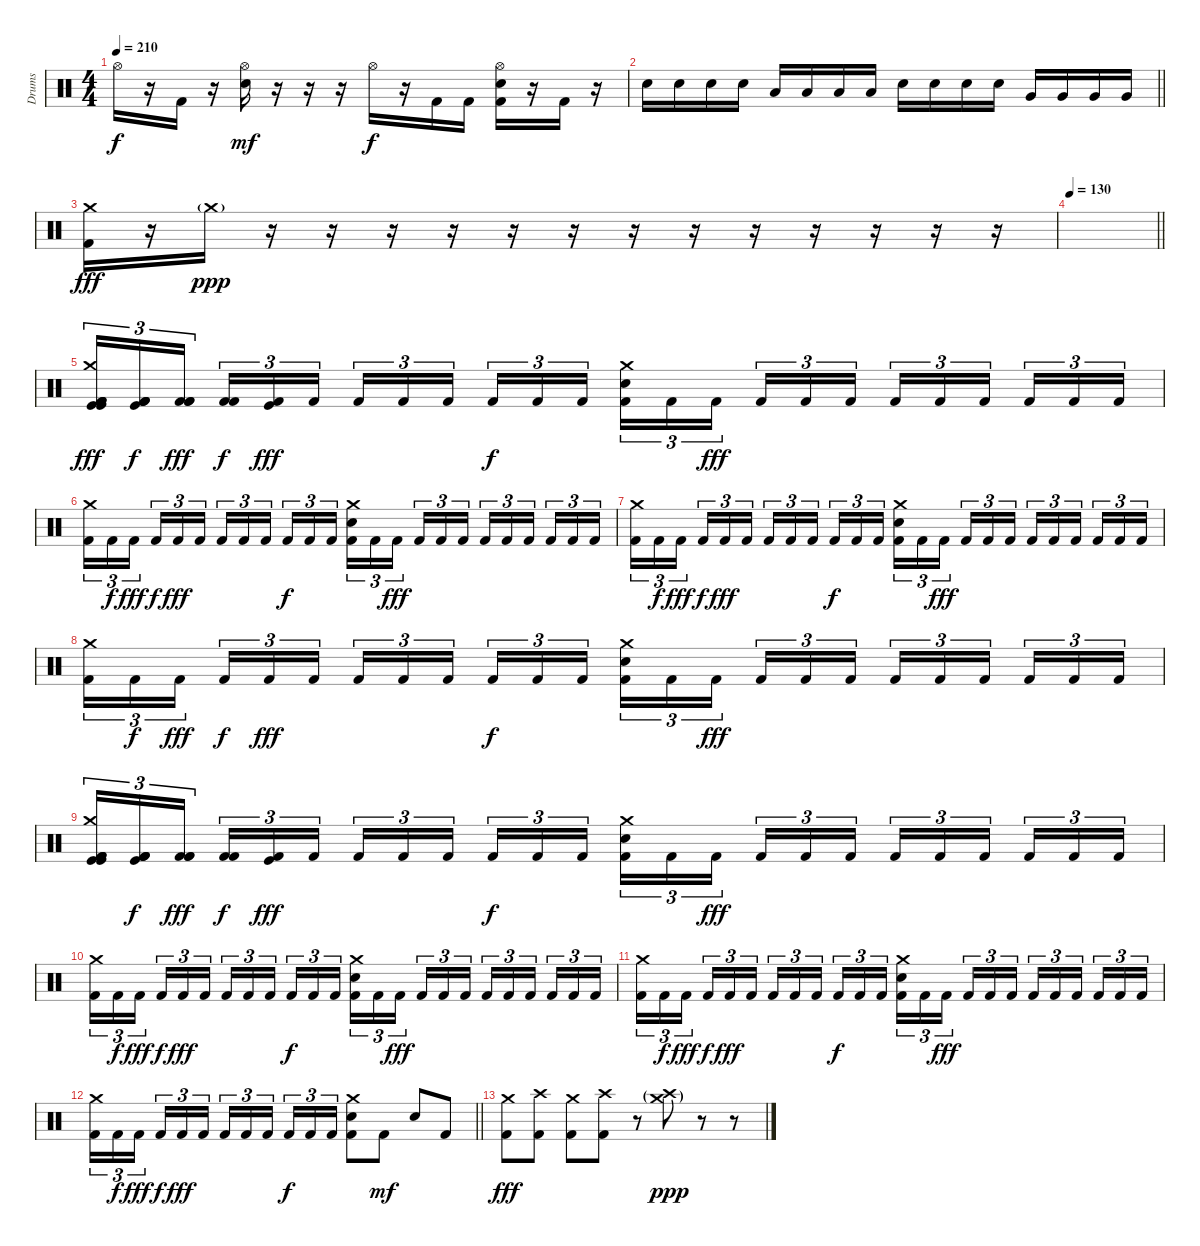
\track ("Drums" "Drums") {instrument percussion}
\staff {score}
\articulation defaults
\ts (4 4)
\tempo 210
\clef neutral
\ks c "Hi-Hat (open)".16{dy f}
r.16 "Kick (hit) 2".16 r.16 ("Hi-Hat (open)" "Snare (hit) 2").16{dy mf} r.16 r.16 r.16 "Hi-Hat (open)".16{dy f} r.16 "Kick (hit) 2".16 "Kick (hit) 2".16 ("Hi-Hat (open)" "Snare (hit) 2" "Kick (hit) 2").16 r.16 "Kick (hit) 2".16 r.16 |
\barLineRight lightlight "Snare (hit) 2".16 "Snare (hit) 2".16 "Snare (hit) 2".16 "Snare (hit) 2".16 "Low Tom (hit)".16 "Low Tom (hit)".16 "Low Tom (hit)".16 "Low Tom (hit)".16 "Snare (hit) 2".16 "Snare (hit) 2".16 "Snare (hit) 2".16 "Snare (hit) 2".16 "Very Low Tom (hit)".16 "Very Low Tom (hit)".16 "Very Low Tom (hit)".16 "Very Low Tom (hit)".16
|
("Crash medium (hit)" "Kick (hit) 2").16{dy fff} r.16 "Crash medium (hit)"{g}.16{dy ppp} r.16 r.16 r.16 r.16 r.16 r.16 r.16 r.16 r.16 r.16 r.16 r.16 r.16 |
\tempo 130
\barLineRight lightlight
|
("Crash medium (hit)" "Kick (hit)" "Kick (hit)" "Kick (hit) 2" "Kick (hit) 2" "Kick (hit) 2").16{tu (3 2) dy fff} ("Kick (hit)" "Kick (hit) 2" "Kick (hit) 2" "Kick (hit) 2").16{tu (3 2) dy f} ("Kick (hit) 2" "Kick (hit) 2" "Kick (hit) 2").16{tu (3 2) dy fff beam splitsecondary} ("Kick (hit) 2" "Kick (hit) 2").16{tu (3 2) dy f} ("Kick (hit)" "Kick (hit) 2").16{tu (3 2) dy fff} "Kick (hit) 2".16{tu (3 2)} "Kick (hit) 2".16{tu (3 2)} "Kick (hit) 2".16{tu (3 2)} "Kick (hit) 2".16{tu (3 2) beam splitsecondary} "Kick (hit) 2".16{tu (3 2) dy f} "Kick (hit) 2".16{tu (3 2)} "Kick (hit) 2".16{tu (3 2)} ("Crash medium (hit)" "Snare (hit) 2" "Kick (hit) 2").16{tu (3 2)} "Kick (hit) 2".16{tu (3 2)} "Kick (hit) 2".16{tu (3 2) dy fff beam splitsecondary} "Kick (hit) 2".16{tu (3 2)} "Kick (hit) 2".16{tu (3 2)} "Kick (hit) 2".16{tu (3 2)} "Kick (hit) 2".16{tu (3 2)} "Kick (hit) 2".16{tu (3 2)} "Kick (hit) 2".16{tu (3 2) beam splitsecondary} "Kick (hit) 2".16{tu (3 2)} "Kick (hit) 2".16{tu (3 2)} "Kick (hit) 2".16{tu (3 2)} |
("Crash medium (hit)" "Kick (hit) 2").16{tu (3 2)} "Kick (hit) 2".16{tu (3 2) dy f} "Kick (hit) 2".16{tu (3 2) dy fff beam splitsecondary} "Kick (hit) 2".16{tu (3 2) dy f} "Kick (hit) 2".16{tu (3 2) dy fff} "Kick (hit) 2".16{tu (3 2)} "Kick (hit) 2".16{tu (3 2)} "Kick (hit) 2".16{tu (3 2)} "Kick (hit) 2".16{tu (3 2) beam splitsecondary} "Kick (hit) 2".16{tu (3 2) dy f} "Kick (hit) 2".16{tu (3 2)} "Kick (hit) 2".16{tu (3 2)} ("Crash medium (hit)" "Snare (hit) 2" "Kick (hit) 2").16{tu (3 2)} "Kick (hit) 2".16{tu (3 2)} "Kick (hit) 2".16{tu (3 2) dy fff beam splitsecondary} "Kick (hit) 2".16{tu (3 2)} "Kick (hit) 2".16{tu (3 2)} "Kick (hit) 2".16{tu (3 2)} "Kick (hit) 2".16{tu (3 2)} "Kick (hit) 2".16{tu (3 2)} "Kick (hit) 2".16{tu (3 2) beam splitsecondary} "Kick (hit) 2".16{tu (3 2)} "Kick (hit) 2".16{tu (3 2)} "Kick (hit) 2".16{tu (3 2)} |
("Crash medium (hit)" "Kick (hit) 2").16{tu (3 2)} "Kick (hit) 2".16{tu (3 2) dy f} "Kick (hit) 2".16{tu (3 2) dy fff beam splitsecondary} "Kick (hit) 2".16{tu (3 2) dy f} "Kick (hit) 2".16{tu (3 2) dy fff} "Kick (hit) 2".16{tu (3 2)} "Kick (hit) 2".16{tu (3 2)} "Kick (hit) 2".16{tu (3 2)} "Kick (hit) 2".16{tu (3 2) beam splitsecondary} "Kick (hit) 2".16{tu (3 2) dy f} "Kick (hit) 2".16{tu (3 2)} "Kick (hit) 2".16{tu (3 2)} ("Crash medium (hit)" "Snare (hit) 2" "Kick (hit) 2").16{tu (3 2)} "Kick (hit) 2".16{tu (3 2)} "Kick (hit) 2".16{tu (3 2) dy fff beam splitsecondary} "Kick (hit) 2".16{tu (3 2)} "Kick (hit) 2".16{tu (3 2)} "Kick (hit) 2".16{tu (3 2)} "Kick (hit) 2".16{tu (3 2)} "Kick (hit) 2".16{tu (3 2)} "Kick (hit) 2".16{tu (3 2) beam splitsecondary} "Kick (hit) 2".16{tu (3 2)} "Kick (hit) 2".16{tu (3 2)} "Kick (hit) 2".16{tu (3 2)} |
("Crash medium (hit)" "Kick (hit) 2").16{tu (3 2)} "Kick (hit) 2".16{tu (3 2) dy f} "Kick (hit) 2".16{tu (3 2) dy fff beam splitsecondary} "Kick (hit) 2".16{tu (3 2) dy f} "Kick (hit) 2".16{tu (3 2) dy fff} "Kick (hit) 2".16{tu (3 2)} "Kick (hit) 2".16{tu (3 2)} "Kick (hit) 2".16{tu (3 2)} "Kick (hit) 2".16{tu (3 2) beam splitsecondary} "Kick (hit) 2".16{tu (3 2) dy f} "Kick (hit) 2".16{tu (3 2)} "Kick (hit) 2".16{tu (3 2)} ("Crash medium (hit)" "Snare (hit) 2" "Kick (hit) 2").16{tu (3 2)} "Kick (hit) 2".16{tu (3 2)} "Kick (hit) 2".16{tu (3 2) dy fff beam splitsecondary} "Kick (hit) 2".16{tu (3 2)} "Kick (hit) 2".16{tu (3 2)} "Kick (hit) 2".16{tu (3 2)} "Kick (hit) 2".16{tu (3 2)} "Kick (hit) 2".16{tu (3 2)} "Kick (hit) 2".16{tu (3 2) beam splitsecondary} "Kick (hit) 2".16{tu (3 2)} "Kick (hit) 2".16{tu (3 2)} "Kick (hit) 2".16{tu (3 2)} |
("Crash medium (hit)" "Kick (hit)" "Kick (hit)" "Kick (hit) 2" "Kick (hit) 2" "Kick (hit) 2").16{tu (3 2)} ("Kick (hit)" "Kick (hit) 2" "Kick (hit) 2" "Kick (hit) 2").16{tu (3 2) dy f} ("Kick (hit) 2" "Kick (hit) 2" "Kick (hit) 2").16{tu (3 2) dy fff beam splitsecondary} ("Kick (hit) 2" "Kick (hit) 2").16{tu (3 2) dy f} ("Kick (hit)" "Kick (hit) 2").16{tu (3 2) dy fff} "Kick (hit) 2".16{tu (3 2)} "Kick (hit) 2".16{tu (3 2)} "Kick (hit) 2".16{tu (3 2)} "Kick (hit) 2".16{tu (3 2) beam splitsecondary} "Kick (hit) 2".16{tu (3 2) dy f} "Kick (hit) 2".16{tu (3 2)} "Kick (hit) 2".16{tu (3 2)} ("Crash medium (hit)" "Snare (hit) 2" "Kick (hit) 2").16{tu (3 2)} "Kick (hit) 2".16{tu (3 2)} "Kick (hit) 2".16{tu (3 2) dy fff beam splitsecondary} "Kick (hit) 2".16{tu (3 2)} "Kick (hit) 2".16{tu (3 2)} "Kick (hit) 2".16{tu (3 2)} "Kick (hit) 2".16{tu (3 2)} "Kick (hit) 2".16{tu (3 2)} "Kick (hit) 2".16{tu (3 2) beam splitsecondary} "Kick (hit) 2".16{tu (3 2)} "Kick (hit) 2".16{tu (3 2)} "Kick (hit) 2".16{tu (3 2)} |
("Crash medium (hit)" "Kick (hit) 2").16{tu (3 2)} "Kick (hit) 2".16{tu (3 2) dy f} "Kick (hit) 2".16{tu (3 2) dy fff beam splitsecondary} "Kick (hit) 2".16{tu (3 2) dy f} "Kick (hit) 2".16{tu (3 2) dy fff} "Kick (hit) 2".16{tu (3 2)} "Kick (hit) 2".16{tu (3 2)} "Kick (hit) 2".16{tu (3 2)} "Kick (hit) 2".16{tu (3 2) beam splitsecondary} "Kick (hit) 2".16{tu (3 2) dy f} "Kick (hit) 2".16{tu (3 2)} "Kick (hit) 2".16{tu (3 2)} ("Crash medium (hit)" "Snare (hit) 2" "Kick (hit) 2").16{tu (3 2)} "Kick (hit) 2".16{tu (3 2)} "Kick (hit) 2".16{tu (3 2) dy fff beam splitsecondary} "Kick (hit) 2".16{tu (3 2)} "Kick (hit) 2".16{tu (3 2)} "Kick (hit) 2".16{tu (3 2)} "Kick (hit) 2".16{tu (3 2)} "Kick (hit) 2".16{tu (3 2)} "Kick (hit) 2".16{tu (3 2) beam splitsecondary} "Kick (hit) 2".16{tu (3 2)} "Kick (hit) 2".16{tu (3 2)} "Kick (hit) 2".16{tu (3 2)} |
("Crash medium (hit)" "Kick (hit) 2").16{tu (3 2)} "Kick (hit) 2".16{tu (3 2) dy f} "Kick (hit) 2".16{tu (3 2) dy fff beam splitsecondary} "Kick (hit) 2".16{tu (3 2) dy f} "Kick (hit) 2".16{tu (3 2) dy fff} "Kick (hit) 2".16{tu (3 2)} "Kick (hit) 2".16{tu (3 2)} "Kick (hit) 2".16{tu (3 2)} "Kick (hit) 2".16{tu (3 2) beam splitsecondary} "Kick (hit) 2".16{tu (3 2) dy f} "Kick (hit) 2".16{tu (3 2)} "Kick (hit) 2".16{tu (3 2)} ("Crash medium (hit)" "Snare (hit) 2" "Kick (hit) 2").16{tu (3 2)} "Kick (hit) 2".16{tu (3 2)} "Kick (hit) 2".16{tu (3 2) dy fff beam splitsecondary} "Kick (hit) 2".16{tu (3 2)} "Kick (hit) 2".16{tu (3 2)} "Kick (hit) 2".16{tu (3 2)} "Kick (hit) 2".16{tu (3 2)} "Kick (hit) 2".16{tu (3 2)} "Kick (hit) 2".16{tu (3 2) beam splitsecondary} "Kick (hit) 2".16{tu (3 2)} "Kick (hit) 2".16{tu (3 2)} "Kick (hit) 2".16{tu (3 2)} |
\barLineRight lightlight
("Crash medium (hit)" "Kick (hit) 2").16{tu (3 2)} "Kick (hit) 2".16{tu (3 2) dy f} "Kick (hit) 2".16{tu (3 2) dy fff beam splitsecondary} "Kick (hit) 2".16{tu (3 2) dy f} "Kick (hit) 2".16{tu (3 2) dy fff} "Kick (hit) 2".16{tu (3 2)} "Kick (hit) 2".16{tu (3 2)} "Kick (hit) 2".16{tu (3 2)} "Kick (hit) 2".16{tu (3 2) beam splitsecondary} "Kick (hit) 2".16{tu (3 2) dy f} "Kick (hit) 2".16{tu (3 2)} "Kick (hit) 2".16{tu (3 2)} ("Crash medium (hit)" "Snare (hit) 2" "Kick (hit) 2").8 "Kick (hit) 2".8{dy mf} "Snare (hit) 2".8 "Kick (hit) 2".8 |
("Crash medium (hit)" "Kick (hit) 2").8{dy fff} ("Crash high (hit)" "Kick (hit) 2").8 ("Crash medium (hit)" "Kick (hit) 2").8 ("Crash high (hit)" "Kick (hit) 2").8 r.8 ("Crash high (hit)"{g} "Crash medium (hit)"{g}).8{dy ppp} r.8 r.8
